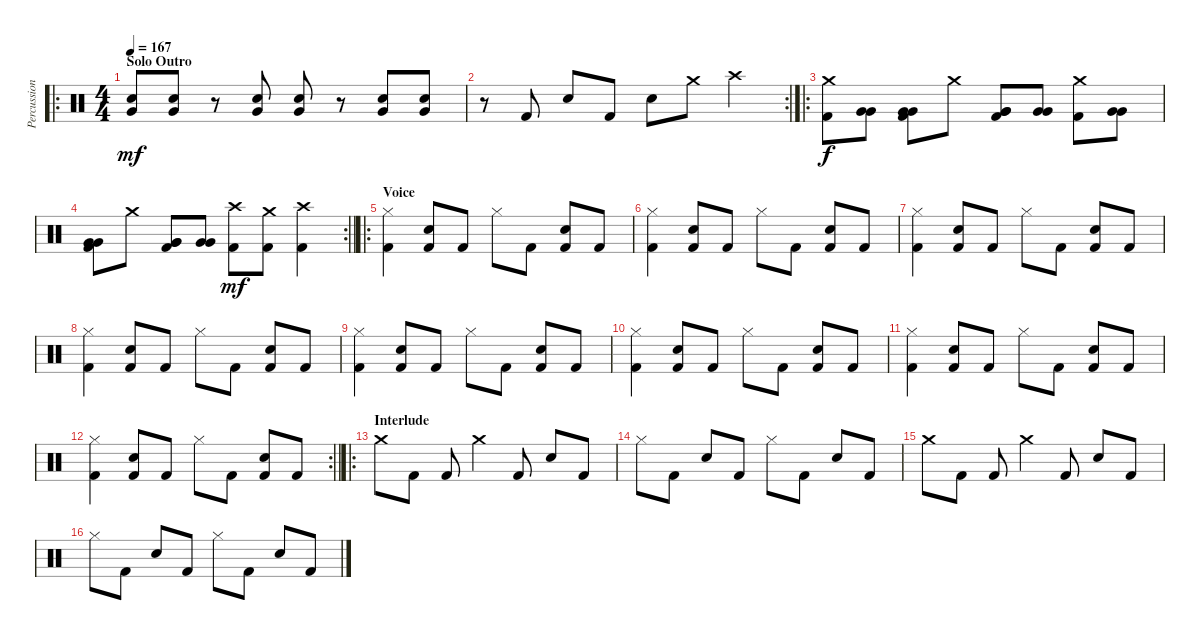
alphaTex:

\track ("Percussioni" "Percussion") {instrument percussion}
\staff {score}
\articulation defaults
\ro
\ts (4 4)
\section ("" "Solo Outro")
\tempo 167
\clef neutral
\ks c
("Very Low Tom (hit)" "Electric Snare (hit)").8{dy mf} ("Very Low Tom (hit)" "Electric Snare (hit)").8 r.8 ("Very Low Tom (hit)" "Electric Snare (hit)").8 ("Very Low Tom (hit)" "Electric Snare (hit)").8 r.8 ("Very Low Tom (hit)" "Electric Snare (hit)").8 ("Very Low Tom (hit)" "Electric Snare (hit)").8 |
\rc 2
r.8 "Kick (hit) 2".8 "Electric Snare (hit)".8 "Kick (hit) 2".8 "Electric Snare (hit)".8 "Crash medium (hit)".8 "Crash high (hit)".4 |
\ro
("Crash medium (hit)" "Kick (hit) 2").8{dy f} ("Very Low Tom (hit)" "Very Low Tom (hit)").8 ("Very Low Tom (hit)" "Very Low Tom (hit)" "Kick (hit) 2").8 "Crash medium (hit)".8 ("Very Low Tom (hit)" "Very Low Tom (hit)" "Kick (hit) 2").8 ("Very Low Tom (hit)" "Very Low Tom (hit)").8 ("Crash medium (hit)" "Kick (hit) 2").8 ("Very Low Tom (hit)" "Very Low Tom (hit)").8 |
\rc 2
\barLineRight lightlight
("Very Low Tom (hit)" "Very Low Tom (hit)" "Kick (hit) 2").8 "Crash medium (hit)".8 ("Very Low Tom (hit)" "Very Low Tom (hit)" "Kick (hit) 2").8 ("Very Low Tom (hit)" "Very Low Tom (hit)").8 ("Crash high (hit)" "Kick (hit) 2").8{dy mf} ("Crash medium (hit)" "Kick (hit) 2").8 ("Crash high (hit)" "Kick (hit) 2").4 |
\ro
\section ("" "Voice")
("Hi-Hat (closed)" "Kick (hit) 2").4 ("Electric Snare (hit)" "Kick (hit) 2").8 "Kick (hit) 2".8 "Hi-Hat (closed)".8 "Kick (hit) 2".8 ("Electric Snare (hit)" "Kick (hit) 2").8 "Kick (hit) 2".8 |
("Hi-Hat (closed)" "Kick (hit) 2").4 ("Electric Snare (hit)" "Kick (hit) 2").8 "Kick (hit) 2".8 "Hi-Hat (closed)".8 "Kick (hit) 2".8 ("Electric Snare (hit)" "Kick (hit) 2").8 "Kick (hit) 2".8 |
("Hi-Hat (closed)" "Kick (hit) 2").4 ("Electric Snare (hit)" "Kick (hit) 2").8 "Kick (hit) 2".8 "Hi-Hat (closed)".8 "Kick (hit) 2".8 ("Electric Snare (hit)" "Kick (hit) 2").8 "Kick (hit) 2".8 |
("Hi-Hat (closed)" "Kick (hit) 2").4 ("Electric Snare (hit)" "Kick (hit) 2").8 "Kick (hit) 2".8 "Hi-Hat (closed)".8 "Kick (hit) 2".8 ("Electric Snare (hit)" "Kick (hit) 2").8 "Kick (hit) 2".8 |
("Hi-Hat (closed)" "Kick (hit) 2").4 ("Electric Snare (hit)" "Kick (hit) 2").8 "Kick (hit) 2".8 "Hi-Hat (closed)".8 "Kick (hit) 2".8 ("Electric Snare (hit)" "Kick (hit) 2").8 "Kick (hit) 2".8 |
("Hi-Hat (closed)" "Kick (hit) 2").4 ("Electric Snare (hit)" "Kick (hit) 2").8 "Kick (hit) 2".8 "Hi-Hat (closed)".8 "Kick (hit) 2".8 ("Electric Snare (hit)" "Kick (hit) 2").8 "Kick (hit) 2".8 |
("Hi-Hat (closed)" "Kick (hit) 2").4 ("Electric Snare (hit)" "Kick (hit) 2").8 "Kick (hit) 2".8 "Hi-Hat (closed)".8 "Kick (hit) 2".8 ("Electric Snare (hit)" "Kick (hit) 2").8 "Kick (hit) 2".8 |
\rc 2
\barLineRight lightlight
("Hi-Hat (closed)" "Kick (hit) 2").4 ("Electric Snare (hit)" "Kick (hit) 2").8 "Kick (hit) 2".8 "Hi-Hat (closed)".8 "Kick (hit) 2".8 ("Electric Snare (hit)" "Kick (hit) 2").8 "Kick (hit) 2".8 |
\ro
\section ("" "Interlude")
"Crash medium (hit)".8 "Kick (hit) 2".8 "Kick (hit) 2".8 "Crash medium (hit)".4 "Kick (hit) 2".8 "Electric Snare (hit)".8 "Kick (hit) 2".8 |
"Hi-Hat (closed)".8 "Kick (hit) 2".8 "Electric Snare (hit)".8 "Kick (hit) 2".8 "Hi-Hat (closed)".8 "Kick (hit) 2".8 "Electric Snare (hit)".8 "Kick (hit) 2".8 |
"Crash medium (hit)".8 "Kick (hit) 2".8 "Kick (hit) 2".8 "Crash medium (hit)".4 "Kick (hit) 2".8 "Electric Snare (hit)".8 "Kick (hit) 2".8 |
"Hi-Hat (closed)".8 "Kick (hit) 2".8 "Electric Snare (hit)".8 "Kick (hit) 2".8 "Hi-Hat (closed)".8 "Kick (hit) 2".8 "Electric Snare (hit)".8 "Kick (hit) 2".8
